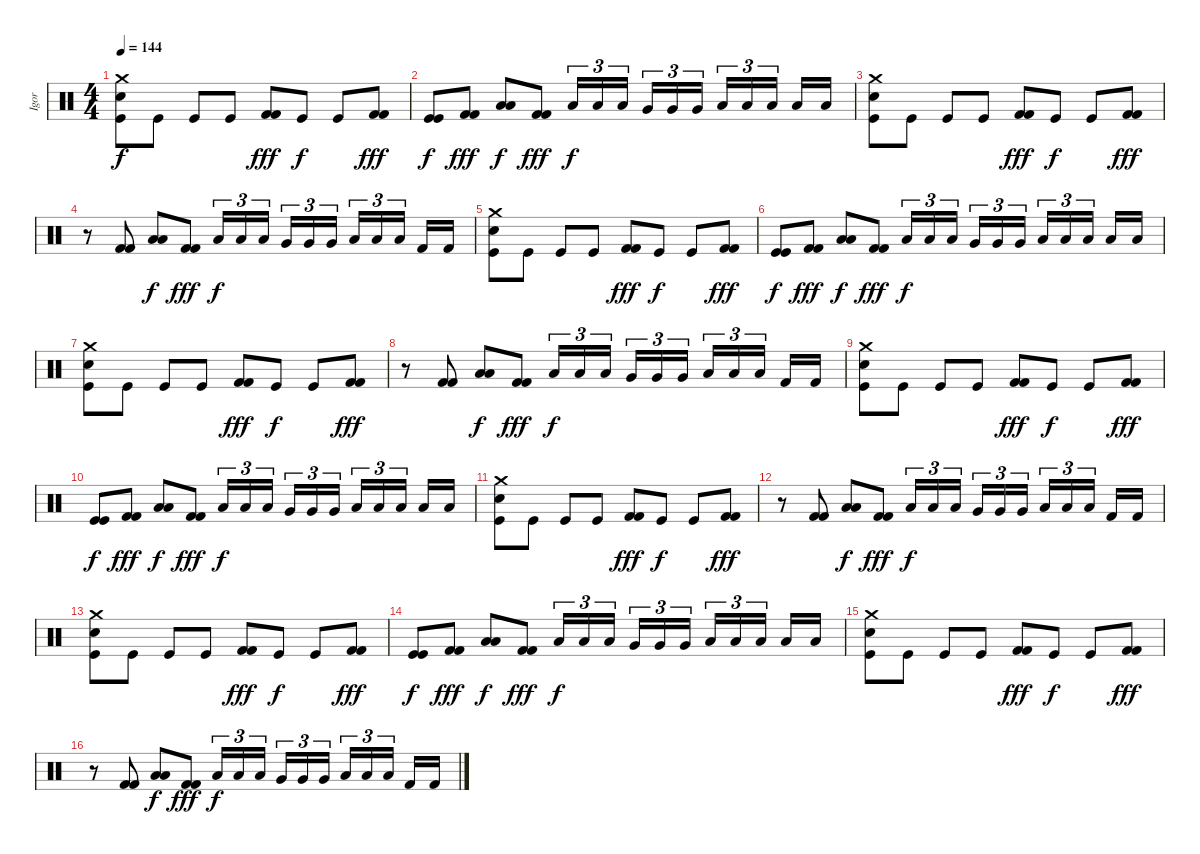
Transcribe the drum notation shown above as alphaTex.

\track ("Igor" "Igor") {instrument percussion}
\staff {score}
\articulation defaults
\ts (4 4)
\tempo 144
\clef neutral
\ks c
("Crash medium (hit)" "Kick (hit)" "Snare (hit) 2").8{dy f} "Kick (hit)".8 "Kick (hit)".8 "Kick (hit)".8 ("Kick (hit) 2" "Kick (hit) 2").8{dy fff} "Kick (hit)".8{dy f} "Kick (hit)".8 ("Kick (hit) 2" "Kick (hit) 2").8{dy fff} |
("Kick (hit)" "Kick (hit)").8{dy f} ("Kick (hit) 2" "Kick (hit) 2").8{dy fff} ("Low Floor Tom (hit)" "Low Floor Tom (hit)").8{dy f} ("Kick (hit) 2" "Kick (hit) 2").8{dy fff} "Low Tom (hit)".16{tu (3 2) dy f} "Low Tom (hit)".16{tu (3 2)} "Low Tom (hit)".16{tu (3 2)} "Very Low Tom (hit)".16{tu (3 2)} "Very Low Tom (hit)".16{tu (3 2)} "Very Low Tom (hit)".16{tu (3 2)} "Low Floor Tom (hit)".16{tu (3 2)} "Low Floor Tom (hit)".16{tu (3 2)} "Low Floor Tom (hit)".16{tu (3 2)} "Low Floor Tom (hit)".16 "Low Floor Tom (hit)".16 |
("Crash medium (hit)" "Kick (hit)" "Snare (hit) 2").8 "Kick (hit)".8 "Kick (hit)".8 "Kick (hit)".8 ("Kick (hit) 2" "Kick (hit) 2").8{dy fff} "Kick (hit)".8{dy f} "Kick (hit)".8 ("Kick (hit) 2" "Kick (hit) 2").8{dy fff} |
r.8 ("Kick (hit) 2" "Kick (hit) 2").8 ("Low Floor Tom (hit)" "Low Floor Tom (hit)").8{dy f} ("Kick (hit) 2" "Kick (hit) 2").8{dy fff} "Low Tom (hit)".16{tu (3 2) dy f} "Low Tom (hit)".16{tu (3 2)} "Low Tom (hit)".16{tu (3 2)} "Very Low Tom (hit)".16{tu (3 2)} "Very Low Tom (hit)".16{tu (3 2)} "Very Low Tom (hit)".16{tu (3 2)} "Low Floor Tom (hit)".16{tu (3 2)} "Low Floor Tom (hit)".16{tu (3 2)} "Low Floor Tom (hit)".16{tu (3 2)} "Kick (hit) 2".16 "Kick (hit) 2".16 |
("Crash medium (hit)" "Kick (hit)" "Snare (hit) 2").8 "Kick (hit)".8 "Kick (hit)".8 "Kick (hit)".8 ("Kick (hit) 2" "Kick (hit) 2").8{dy fff} "Kick (hit)".8{dy f} "Kick (hit)".8 ("Kick (hit) 2" "Kick (hit) 2").8{dy fff} |
("Kick (hit)" "Kick (hit)").8{dy f} ("Kick (hit) 2" "Kick (hit) 2").8{dy fff} ("Low Floor Tom (hit)" "Low Floor Tom (hit)").8{dy f} ("Kick (hit) 2" "Kick (hit) 2").8{dy fff} "Low Tom (hit)".16{tu (3 2) dy f} "Low Tom (hit)".16{tu (3 2)} "Low Tom (hit)".16{tu (3 2)} "Very Low Tom (hit)".16{tu (3 2)} "Very Low Tom (hit)".16{tu (3 2)} "Very Low Tom (hit)".16{tu (3 2)} "Low Floor Tom (hit)".16{tu (3 2)} "Low Floor Tom (hit)".16{tu (3 2)} "Low Floor Tom (hit)".16{tu (3 2)} "Low Floor Tom (hit)".16 "Low Floor Tom (hit)".16 |
("Crash medium (hit)" "Kick (hit)" "Snare (hit) 2").8 "Kick (hit)".8 "Kick (hit)".8 "Kick (hit)".8 ("Kick (hit) 2" "Kick (hit) 2").8{dy fff} "Kick (hit)".8{dy f} "Kick (hit)".8 ("Kick (hit) 2" "Kick (hit) 2").8{dy fff} |
r.8 ("Kick (hit) 2" "Kick (hit) 2").8 ("Low Floor Tom (hit)" "Low Floor Tom (hit)").8{dy f} ("Kick (hit) 2" "Kick (hit) 2").8{dy fff} "Low Tom (hit)".16{tu (3 2) dy f} "Low Tom (hit)".16{tu (3 2)} "Low Tom (hit)".16{tu (3 2)} "Very Low Tom (hit)".16{tu (3 2)} "Very Low Tom (hit)".16{tu (3 2)} "Very Low Tom (hit)".16{tu (3 2)} "Low Floor Tom (hit)".16{tu (3 2)} "Low Floor Tom (hit)".16{tu (3 2)} "Low Floor Tom (hit)".16{tu (3 2)} "Kick (hit) 2".16 "Kick (hit) 2".16 |
("Crash medium (hit)" "Kick (hit)" "Snare (hit) 2").8 "Kick (hit)".8 "Kick (hit)".8 "Kick (hit)".8 ("Kick (hit) 2" "Kick (hit) 2").8{dy fff} "Kick (hit)".8{dy f} "Kick (hit)".8 ("Kick (hit) 2" "Kick (hit) 2").8{dy fff} |
("Kick (hit)" "Kick (hit)").8{dy f} ("Kick (hit) 2" "Kick (hit) 2").8{dy fff} ("Low Floor Tom (hit)" "Low Floor Tom (hit)").8{dy f} ("Kick (hit) 2" "Kick (hit) 2").8{dy fff} "Low Tom (hit)".16{tu (3 2) dy f} "Low Tom (hit)".16{tu (3 2)} "Low Tom (hit)".16{tu (3 2)} "Very Low Tom (hit)".16{tu (3 2)} "Very Low Tom (hit)".16{tu (3 2)} "Very Low Tom (hit)".16{tu (3 2)} "Low Floor Tom (hit)".16{tu (3 2)} "Low Floor Tom (hit)".16{tu (3 2)} "Low Floor Tom (hit)".16{tu (3 2)} "Low Floor Tom (hit)".16 "Low Floor Tom (hit)".16 |
("Crash medium (hit)" "Kick (hit)" "Snare (hit) 2").8 "Kick (hit)".8 "Kick (hit)".8 "Kick (hit)".8 ("Kick (hit) 2" "Kick (hit) 2").8{dy fff} "Kick (hit)".8{dy f} "Kick (hit)".8 ("Kick (hit) 2" "Kick (hit) 2").8{dy fff} |
r.8 ("Kick (hit) 2" "Kick (hit) 2").8 ("Low Floor Tom (hit)" "Low Floor Tom (hit)").8{dy f} ("Kick (hit) 2" "Kick (hit) 2").8{dy fff} "Low Tom (hit)".16{tu (3 2) dy f} "Low Tom (hit)".16{tu (3 2)} "Low Tom (hit)".16{tu (3 2)} "Very Low Tom (hit)".16{tu (3 2)} "Very Low Tom (hit)".16{tu (3 2)} "Very Low Tom (hit)".16{tu (3 2)} "Low Floor Tom (hit)".16{tu (3 2)} "Low Floor Tom (hit)".16{tu (3 2)} "Low Floor Tom (hit)".16{tu (3 2)} "Kick (hit) 2".16 "Kick (hit) 2".16 |
("Crash medium (hit)" "Kick (hit)" "Snare (hit) 2").8 "Kick (hit)".8 "Kick (hit)".8 "Kick (hit)".8 ("Kick (hit) 2" "Kick (hit) 2").8{dy fff} "Kick (hit)".8{dy f} "Kick (hit)".8 ("Kick (hit) 2" "Kick (hit) 2").8{dy fff} |
("Kick (hit)" "Kick (hit)").8{dy f} ("Kick (hit) 2" "Kick (hit) 2").8{dy fff} ("Low Floor Tom (hit)" "Low Floor Tom (hit)").8{dy f} ("Kick (hit) 2" "Kick (hit) 2").8{dy fff} "Low Tom (hit)".16{tu (3 2) dy f} "Low Tom (hit)".16{tu (3 2)} "Low Tom (hit)".16{tu (3 2)} "Very Low Tom (hit)".16{tu (3 2)} "Very Low Tom (hit)".16{tu (3 2)} "Very Low Tom (hit)".16{tu (3 2)} "Low Floor Tom (hit)".16{tu (3 2)} "Low Floor Tom (hit)".16{tu (3 2)} "Low Floor Tom (hit)".16{tu (3 2)} "Low Floor Tom (hit)".16 "Low Floor Tom (hit)".16 |
("Crash medium (hit)" "Kick (hit)" "Snare (hit) 2").8 "Kick (hit)".8 "Kick (hit)".8 "Kick (hit)".8 ("Kick (hit) 2" "Kick (hit) 2").8{dy fff} "Kick (hit)".8{dy f} "Kick (hit)".8 ("Kick (hit) 2" "Kick (hit) 2").8{dy fff} |
r.8 ("Kick (hit) 2" "Kick (hit) 2").8 ("Low Floor Tom (hit)" "Low Floor Tom (hit)").8{dy f} ("Kick (hit) 2" "Kick (hit) 2").8{dy fff} "Low Tom (hit)".16{tu (3 2) dy f} "Low Tom (hit)".16{tu (3 2)} "Low Tom (hit)".16{tu (3 2)} "Very Low Tom (hit)".16{tu (3 2)} "Very Low Tom (hit)".16{tu (3 2)} "Very Low Tom (hit)".16{tu (3 2)} "Low Floor Tom (hit)".16{tu (3 2)} "Low Floor Tom (hit)".16{tu (3 2)} "Low Floor Tom (hit)".16{tu (3 2)} "Kick (hit) 2".16 "Kick (hit) 2".16
